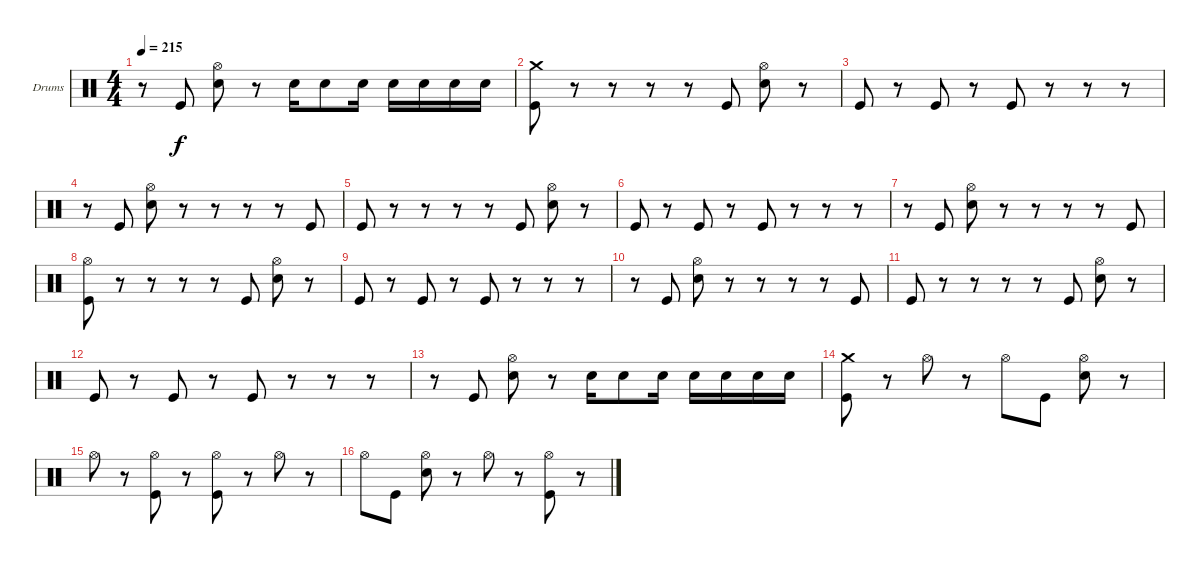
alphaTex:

\bracketExtendMode groupsimilarinstruments
\firstSystemTrackNameOrientation horizontal
\otherSystemsTrackNameOrientation horizontal
\track ("Drumkit (Christoph)" "Drums") {instrument percussion}
\staff {score}
\articulation defaults
\ts (4 4)
\tempo 215
\clef neutral
\ks c
r.8{dy f} "Kick (hit)".8 ("Hi-Hat (open)" "Snare (hit) 2").8 r.8 "Snare (hit) 2".16 "Snare (hit) 2".8 "Snare (hit) 2".16 "Snare (hit) 2".16 "Snare (hit) 2".16 "Snare (hit) 2".16 "Snare (hit) 2".16 |
("Crash medium (hit)" "Kick (hit)").8 r.8 r.8 r.8 r.8 "Kick (hit)".8 ("Hi-Hat (open)" "Snare (hit) 2").8 r.8 |
"Kick (hit)".8 r.8 "Kick (hit)".8 r.8 "Kick (hit)".8 r.8 r.8 r.8 |
r.8 "Kick (hit)".8 ("Hi-Hat (open)" "Snare (hit) 2").8 r.8 r.8 r.8 r.8 "Kick (hit)".8 |
"Kick (hit)".8 r.8 r.8 r.8 r.8 "Kick (hit)".8 ("Hi-Hat (open)" "Snare (hit) 2").8 r.8 |
"Kick (hit)".8 r.8 "Kick (hit)".8 r.8 "Kick (hit)".8 r.8 r.8 r.8 |
r.8 "Kick (hit)".8 ("Hi-Hat (open)" "Snare (hit) 2").8 r.8 r.8 r.8 r.8 "Kick (hit)".8 |
("Hi-Hat (open)" "Kick (hit)").8 r.8 r.8 r.8 r.8 "Kick (hit)".8 ("Hi-Hat (open)" "Snare (hit) 2").8 r.8 |
"Kick (hit)".8 r.8 "Kick (hit)".8 r.8 "Kick (hit)".8 r.8 r.8 r.8 |
r.8 "Kick (hit)".8 ("Hi-Hat (open)" "Snare (hit) 2").8 r.8 r.8 r.8 r.8 "Kick (hit)".8 |
"Kick (hit)".8 r.8 r.8 r.8 r.8 "Kick (hit)".8 ("Hi-Hat (open)" "Snare (hit) 2").8 r.8 |
"Kick (hit)".8 r.8 "Kick (hit)".8 r.8 "Kick (hit)".8 r.8 r.8 r.8 |
r.8 "Kick (hit)".8 ("Hi-Hat (open)" "Snare (hit) 2").8 r.8 "Snare (hit) 2".16 "Snare (hit) 2".8 "Snare (hit) 2".16 "Snare (hit) 2".16 "Snare (hit) 2".16 "Snare (hit) 2".16 "Snare (hit) 2".16 |
("Crash medium (hit)" "Kick (hit)").8 r.8 "Hi-Hat (open)".8 r.8 "Hi-Hat (open)".8 "Kick (hit)".8 ("Hi-Hat (open)" "Snare (hit) 2").8 r.8 |
"Hi-Hat (open)".8 r.8 ("Hi-Hat (open)" "Kick (hit)").8 r.8 ("Hi-Hat (open)" "Kick (hit)").8 r.8 "Hi-Hat (open)".8 r.8 |
"Hi-Hat (open)".8 "Kick (hit)".8 ("Hi-Hat (open)" "Snare (hit) 2").8 r.8 "Hi-Hat (open)".8 r.8 ("Hi-Hat (open)" "Kick (hit)").8 r.8
